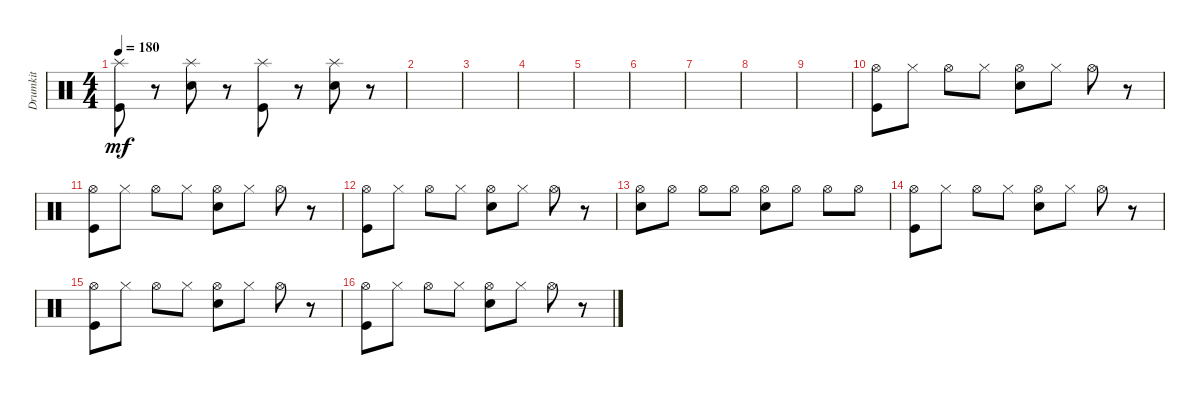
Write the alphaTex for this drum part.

\track ("Drumkit" "Drumkit") {instrument percussion}
\staff {score}
\articulation defaults
\ts (4 4)
\tempo 180
\clef neutral
\ks c
("Kick (hit)" "Splash (hit)").8{dy mf} r.8 ("Snare (hit) 2" "Splash (hit)").8 r.8 ("Kick (hit)" "Splash (hit)").8 r.8 ("Snare (hit) 2" "Splash (hit)").8 r.8 |
|
|
|
|
|
|
|
|
("Kick (hit)" "Hi-Hat (open)").8 "Hi-Hat (closed)".8 "Hi-Hat (open)".8 "Hi-Hat (closed)".8 ("Snare (hit) 2" "Hi-Hat (open)").8 "Hi-Hat (closed)".8 "Hi-Hat (open)".8 r.8 |
("Kick (hit)" "Hi-Hat (open)").8 "Hi-Hat (closed)".8 "Hi-Hat (open)".8 "Hi-Hat (closed)".8 ("Snare (hit) 2" "Hi-Hat (open)").8 "Hi-Hat (closed)".8 "Hi-Hat (open)".8 r.8 |
("Kick (hit)" "Hi-Hat (open)").8 "Hi-Hat (closed)".8 "Hi-Hat (open)".8 "Hi-Hat (closed)".8 ("Snare (hit) 2" "Hi-Hat (open)").8 "Hi-Hat (closed)".8 "Hi-Hat (open)".8 r.8 |
("Snare (hit) 2" "Hi-Hat (open)").8 "Hi-Hat (open)".8 "Hi-Hat (open)".8 "Hi-Hat (open)".8 ("Snare (hit) 2" "Hi-Hat (open)").8 "Hi-Hat (open)".8 "Hi-Hat (open)".8 "Hi-Hat (open)".8 |
("Kick (hit)" "Hi-Hat (open)").8 "Hi-Hat (closed)".8 "Hi-Hat (open)".8 "Hi-Hat (closed)".8 ("Snare (hit) 2" "Hi-Hat (open)").8 "Hi-Hat (closed)".8 "Hi-Hat (open)".8 r.8 |
("Kick (hit)" "Hi-Hat (open)").8 "Hi-Hat (closed)".8 "Hi-Hat (open)".8 "Hi-Hat (closed)".8 ("Snare (hit) 2" "Hi-Hat (open)").8 "Hi-Hat (closed)".8 "Hi-Hat (open)".8 r.8 |
("Kick (hit)" "Hi-Hat (open)").8 "Hi-Hat (closed)".8 "Hi-Hat (open)".8 "Hi-Hat (closed)".8 ("Snare (hit) 2" "Hi-Hat (open)").8 "Hi-Hat (closed)".8 "Hi-Hat (open)".8 r.8
